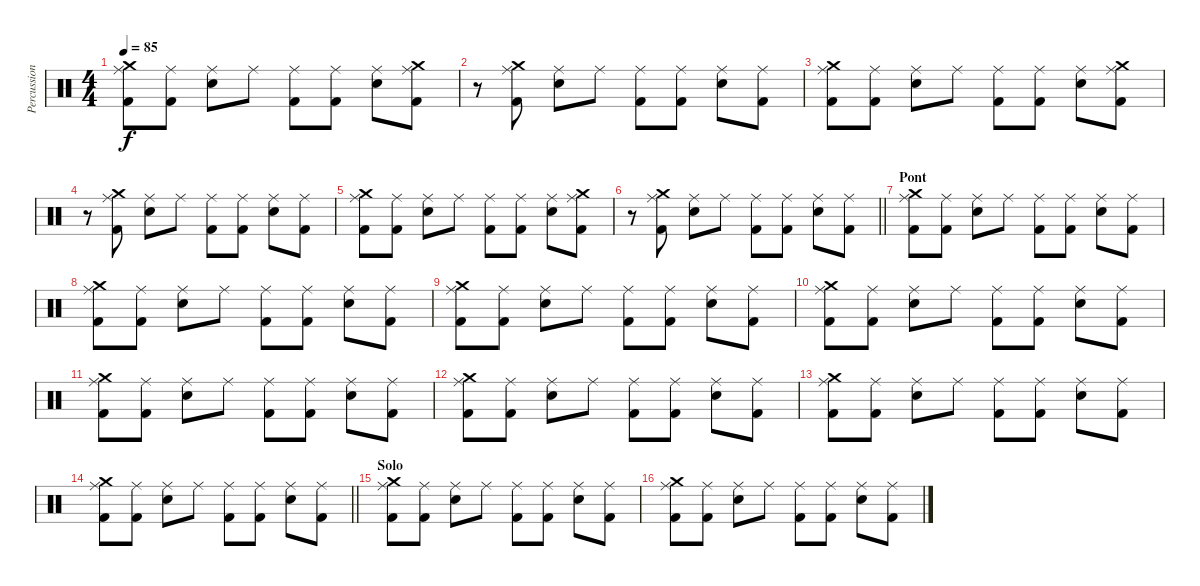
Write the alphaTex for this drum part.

\track ("Percussions" "Percussion") {instrument percussion}
\staff {score}
\articulation defaults
\ts (4 4)
\tempo 85
\clef neutral
\ks c
("Ride (middle)" "Crash medium (hit)" "Kick (hit) 2").8{dy f} ("Ride (middle)" "Kick (hit) 2").8 ("Ride (middle)" "Snare (hit) 2").8 "Ride (middle)".8 ("Ride (middle)" "Kick (hit) 2").8 ("Ride (middle)" "Kick (hit) 2").8 ("Ride (middle)" "Snare (hit) 2").8 ("Crash medium (hit)" "Ride (middle)" "Kick (hit) 2").8 |
r.8 ("Crash medium (hit)" "Ride (middle)" "Kick (hit) 2").8 ("Ride (middle)" "Snare (hit) 2").8 "Ride (middle)".8 ("Ride (middle)" "Kick (hit) 2").8 ("Ride (middle)" "Kick (hit) 2").8 ("Ride (middle)" "Snare (hit) 2").8 ("Ride (middle)" "Kick (hit) 2").8 |
("Ride (middle)" "Crash medium (hit)" "Kick (hit) 2").8 ("Ride (middle)" "Kick (hit) 2").8 ("Ride (middle)" "Snare (hit) 2").8 "Ride (middle)".8 ("Ride (middle)" "Kick (hit) 2").8 ("Ride (middle)" "Kick (hit) 2").8 ("Ride (middle)" "Snare (hit) 2").8 ("Crash medium (hit)" "Ride (middle)" "Kick (hit) 2").8 |
r.8 ("Crash medium (hit)" "Ride (middle)" "Kick (hit) 2").8 ("Ride (middle)" "Snare (hit) 2").8 "Ride (middle)".8 ("Ride (middle)" "Kick (hit) 2").8 ("Ride (middle)" "Kick (hit) 2").8 ("Ride (middle)" "Snare (hit) 2").8 ("Ride (middle)" "Kick (hit) 2").8 |
("Ride (middle)" "Crash medium (hit)" "Kick (hit) 2").8 ("Ride (middle)" "Kick (hit) 2").8 ("Ride (middle)" "Snare (hit) 2").8 "Ride (middle)".8 ("Ride (middle)" "Kick (hit) 2").8 ("Ride (middle)" "Kick (hit) 2").8 ("Ride (middle)" "Snare (hit) 2").8 ("Crash medium (hit)" "Ride (middle)" "Kick (hit) 2").8 |
\barLineRight lightlight
r.8 ("Crash medium (hit)" "Ride (middle)" "Kick (hit) 2").8 ("Ride (middle)" "Snare (hit) 2").8 "Ride (middle)".8 ("Ride (middle)" "Kick (hit) 2").8 ("Ride (middle)" "Kick (hit) 2").8 ("Ride (middle)" "Snare (hit) 2").8 ("Ride (middle)" "Kick (hit) 2").8 |
\section ("" "Pont")
("Ride (middle)" "Crash medium (hit)" "Kick (hit) 2").8 ("Ride (middle)" "Kick (hit) 2").8 ("Ride (middle)" "Snare (hit) 2").8 "Ride (middle)".8 ("Ride (middle)" "Kick (hit) 2").8 ("Ride (middle)" "Kick (hit) 2").8 ("Ride (middle)" "Snare (hit) 2").8 ("Ride (middle)" "Kick (hit) 2").8 |
("Ride (middle)" "Crash medium (hit)" "Kick (hit) 2").8 ("Ride (middle)" "Kick (hit) 2").8 ("Ride (middle)" "Snare (hit) 2").8 "Ride (middle)".8 ("Ride (middle)" "Kick (hit) 2").8 ("Ride (middle)" "Kick (hit) 2").8 ("Ride (middle)" "Snare (hit) 2").8 ("Ride (middle)" "Kick (hit) 2").8 |
("Ride (middle)" "Crash medium (hit)" "Kick (hit) 2").8 ("Ride (middle)" "Kick (hit) 2").8 ("Ride (middle)" "Snare (hit) 2").8 "Ride (middle)".8 ("Ride (middle)" "Kick (hit) 2").8 ("Ride (middle)" "Kick (hit) 2").8 ("Ride (middle)" "Snare (hit) 2").8 ("Ride (middle)" "Kick (hit) 2").8 |
("Ride (middle)" "Crash medium (hit)" "Kick (hit) 2").8 ("Ride (middle)" "Kick (hit) 2").8 ("Ride (middle)" "Snare (hit) 2").8 "Ride (middle)".8 ("Ride (middle)" "Kick (hit) 2").8 ("Ride (middle)" "Kick (hit) 2").8 ("Ride (middle)" "Snare (hit) 2").8 ("Ride (middle)" "Kick (hit) 2").8 |
("Ride (middle)" "Crash medium (hit)" "Kick (hit) 2").8 ("Ride (middle)" "Kick (hit) 2").8 ("Ride (middle)" "Snare (hit) 2").8 "Ride (middle)".8 ("Ride (middle)" "Kick (hit) 2").8 ("Ride (middle)" "Kick (hit) 2").8 ("Ride (middle)" "Snare (hit) 2").8 ("Ride (middle)" "Kick (hit) 2").8 |
("Ride (middle)" "Crash medium (hit)" "Kick (hit) 2").8 ("Ride (middle)" "Kick (hit) 2").8 ("Ride (middle)" "Snare (hit) 2").8 "Ride (middle)".8 ("Ride (middle)" "Kick (hit) 2").8 ("Ride (middle)" "Kick (hit) 2").8 ("Ride (middle)" "Snare (hit) 2").8 ("Ride (middle)" "Kick (hit) 2").8 |
("Ride (middle)" "Crash medium (hit)" "Kick (hit) 2").8 ("Ride (middle)" "Kick (hit) 2").8 ("Ride (middle)" "Snare (hit) 2").8 "Ride (middle)".8 ("Ride (middle)" "Kick (hit) 2").8 ("Ride (middle)" "Kick (hit) 2").8 ("Ride (middle)" "Snare (hit) 2").8 ("Ride (middle)" "Kick (hit) 2").8 |
\barLineRight lightlight
("Ride (middle)" "Crash medium (hit)" "Kick (hit) 2").8 ("Ride (middle)" "Kick (hit) 2").8 ("Ride (middle)" "Snare (hit) 2").8 "Ride (middle)".8 ("Ride (middle)" "Kick (hit) 2").8 ("Ride (middle)" "Kick (hit) 2").8 ("Ride (middle)" "Snare (hit) 2").8 ("Ride (middle)" "Kick (hit) 2").8 |
\section ("" "Solo")
("Ride (middle)" "Crash medium (hit)" "Kick (hit) 2").8 ("Ride (middle)" "Kick (hit) 2").8 ("Ride (middle)" "Snare (hit) 2").8 "Ride (middle)".8 ("Ride (middle)" "Kick (hit) 2").8 ("Ride (middle)" "Kick (hit) 2").8 ("Ride (middle)" "Snare (hit) 2").8 ("Ride (middle)" "Kick (hit) 2").8 |
("Ride (middle)" "Crash medium (hit)" "Kick (hit) 2").8 ("Ride (middle)" "Kick (hit) 2").8 ("Ride (middle)" "Snare (hit) 2").8 "Ride (middle)".8 ("Ride (middle)" "Kick (hit) 2").8 ("Ride (middle)" "Kick (hit) 2").8 ("Ride (middle)" "Snare (hit) 2").8 ("Ride (middle)" "Kick (hit) 2").8
